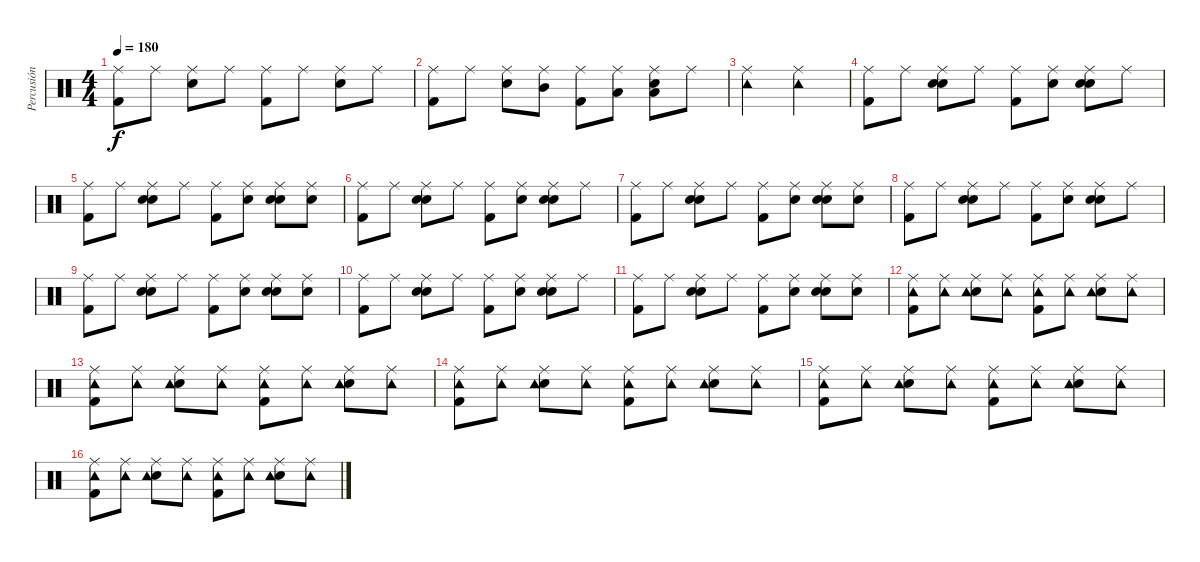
\track ("Percusión" "Percusión") {instrument percussion}
\staff {score}
\articulation defaults
\ts (4 4)
\tempo 180
\clef neutral
\ks c
("Kick (hit) 2" "Ride (middle)").8{dy f} "Ride (middle)".8 ("Electric Snare (hit)" "Ride (middle)").8 "Ride (middle)".8 ("Kick (hit) 2" "Ride (middle)").8 "Ride (middle)".8 ("Electric Snare (hit)" "Ride (middle)").8 "Ride (middle)".8 |
("Kick (hit) 2" "Ride (middle)").8 "Ride (middle)".8 ("Electric Snare (hit)" "Ride (middle)").8 ("Ride (middle)" "Mid Tom (hit)").8 ("Kick (hit) 2" "Ride (middle)").8 ("Ride (middle)" "Low Tom (hit)").8 ("Electric Snare (hit)" "Ride (middle)" "Low Floor Tom (hit)").8 "Ride (middle)".8 |
("Tambourine (hit)" "Ride (middle)").2 ("Tambourine (hit)" "Ride (middle)").2 |
("Kick (hit) 2" "Ride (middle)").8 "Ride (middle)".8 ("Electric Snare (hit)" "Ride (middle)" "Hand Clap (hit)").8 "Ride (middle)".8 ("Kick (hit) 2" "Ride (middle)").8 ("Ride (middle)" "Hand Clap (hit)").8 ("Electric Snare (hit)" "Ride (middle)" "Hand Clap (hit)").8 "Ride (middle)".8 |
("Kick (hit) 2" "Ride (middle)").8 "Ride (middle)".8 ("Electric Snare (hit)" "Ride (middle)" "Hand Clap (hit)").8 "Ride (middle)".8 ("Kick (hit) 2" "Ride (middle)").8 ("Ride (middle)" "Hand Clap (hit)").8 ("Electric Snare (hit)" "Ride (middle)" "Hand Clap (hit)").8 ("Ride (middle)" "Hand Clap (hit)").8 |
("Kick (hit) 2" "Ride (middle)").8 "Ride (middle)".8 ("Electric Snare (hit)" "Ride (middle)" "Hand Clap (hit)").8 "Ride (middle)".8 ("Kick (hit) 2" "Ride (middle)").8 ("Ride (middle)" "Hand Clap (hit)").8 ("Electric Snare (hit)" "Ride (middle)" "Hand Clap (hit)").8 "Ride (middle)".8 |
("Kick (hit) 2" "Ride (middle)").8 "Ride (middle)".8 ("Electric Snare (hit)" "Ride (middle)" "Hand Clap (hit)").8 "Ride (middle)".8 ("Kick (hit) 2" "Ride (middle)").8 ("Ride (middle)" "Hand Clap (hit)").8 ("Electric Snare (hit)" "Ride (middle)" "Hand Clap (hit)").8 ("Ride (middle)" "Hand Clap (hit)").8 |
("Kick (hit) 2" "Ride (middle)").8 "Ride (middle)".8 ("Electric Snare (hit)" "Ride (middle)" "Hand Clap (hit)").8 "Ride (middle)".8 ("Kick (hit) 2" "Ride (middle)").8 ("Ride (middle)" "Hand Clap (hit)").8 ("Electric Snare (hit)" "Ride (middle)" "Hand Clap (hit)").8 "Ride (middle)".8 |
("Kick (hit) 2" "Ride (middle)").8 "Ride (middle)".8 ("Electric Snare (hit)" "Ride (middle)" "Hand Clap (hit)").8 "Ride (middle)".8 ("Kick (hit) 2" "Ride (middle)").8 ("Ride (middle)" "Hand Clap (hit)").8 ("Electric Snare (hit)" "Ride (middle)" "Hand Clap (hit)").8 ("Ride (middle)" "Hand Clap (hit)").8 |
("Kick (hit) 2" "Ride (middle)").8 "Ride (middle)".8 ("Electric Snare (hit)" "Ride (middle)" "Hand Clap (hit)").8 "Ride (middle)".8 ("Kick (hit) 2" "Ride (middle)").8 ("Ride (middle)" "Hand Clap (hit)").8 ("Electric Snare (hit)" "Ride (middle)" "Hand Clap (hit)").8 "Ride (middle)".8 |
("Kick (hit) 2" "Ride (middle)").8 "Ride (middle)".8 ("Electric Snare (hit)" "Ride (middle)" "Hand Clap (hit)").8 "Ride (middle)".8 ("Kick (hit) 2" "Ride (middle)").8 ("Ride (middle)" "Hand Clap (hit)").8 ("Electric Snare (hit)" "Ride (middle)" "Hand Clap (hit)").8 ("Ride (middle)" "Hand Clap (hit)").8 |
("Kick (hit) 2" "Ride (middle)" "Tambourine (hit)").8 ("Ride (middle)" "Tambourine (hit)").8 ("Electric Snare (hit)" "Ride (middle)" "Tambourine (hit)").8 ("Ride (middle)" "Tambourine (hit)").8 ("Kick (hit) 2" "Ride (middle)" "Tambourine (hit)").8 ("Ride (middle)" "Tambourine (hit)").8 ("Electric Snare (hit)" "Ride (middle)" "Tambourine (hit)").8 ("Ride (middle)" "Tambourine (hit)").8 |
("Kick (hit) 2" "Ride (middle)" "Tambourine (hit)").8 ("Ride (middle)" "Tambourine (hit)").8 ("Electric Snare (hit)" "Ride (middle)" "Tambourine (hit)").8 ("Ride (middle)" "Tambourine (hit)").8 ("Kick (hit) 2" "Ride (middle)" "Tambourine (hit)").8 ("Ride (middle)" "Tambourine (hit)").8 ("Electric Snare (hit)" "Ride (middle)" "Tambourine (hit)").8 ("Ride (middle)" "Tambourine (hit)").8 |
("Kick (hit) 2" "Ride (middle)" "Tambourine (hit)").8 ("Ride (middle)" "Tambourine (hit)").8 ("Electric Snare (hit)" "Ride (middle)" "Tambourine (hit)").8 ("Ride (middle)" "Tambourine (hit)").8 ("Kick (hit) 2" "Ride (middle)" "Tambourine (hit)").8 ("Ride (middle)" "Tambourine (hit)").8 ("Electric Snare (hit)" "Ride (middle)" "Tambourine (hit)").8 ("Ride (middle)" "Tambourine (hit)").8 |
("Kick (hit) 2" "Ride (middle)" "Tambourine (hit)").8 ("Ride (middle)" "Tambourine (hit)").8 ("Electric Snare (hit)" "Ride (middle)" "Tambourine (hit)").8 ("Ride (middle)" "Tambourine (hit)").8 ("Kick (hit) 2" "Ride (middle)" "Tambourine (hit)").8 ("Ride (middle)" "Tambourine (hit)").8 ("Electric Snare (hit)" "Ride (middle)" "Tambourine (hit)").8 ("Ride (middle)" "Tambourine (hit)").8 |
("Kick (hit) 2" "Ride (middle)" "Tambourine (hit)").8 ("Ride (middle)" "Tambourine (hit)").8 ("Electric Snare (hit)" "Ride (middle)" "Tambourine (hit)").8 ("Ride (middle)" "Tambourine (hit)").8 ("Kick (hit) 2" "Ride (middle)" "Tambourine (hit)").8 ("Ride (middle)" "Tambourine (hit)").8 ("Electric Snare (hit)" "Ride (middle)" "Tambourine (hit)").8 ("Ride (middle)" "Tambourine (hit)").8
